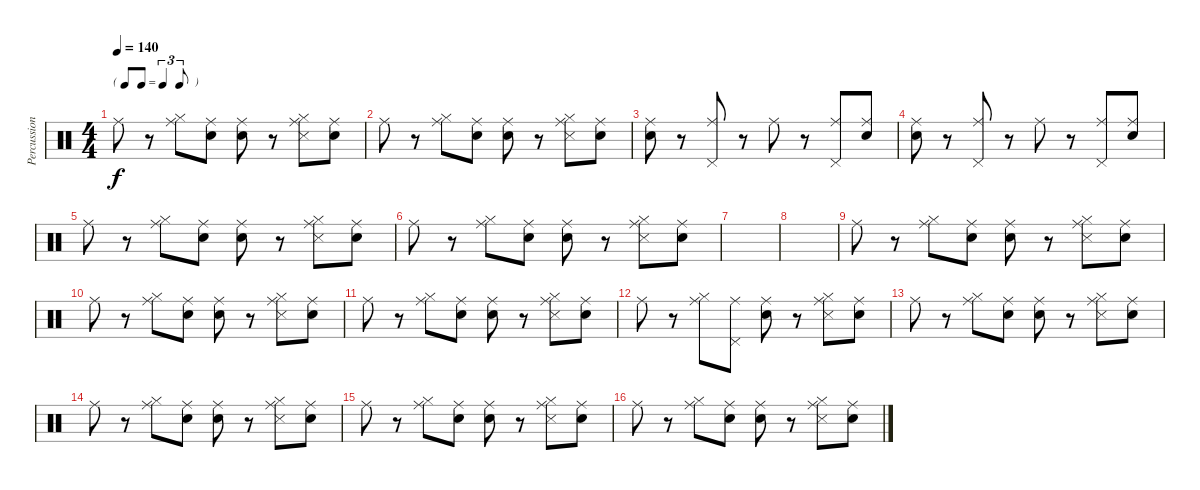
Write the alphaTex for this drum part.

\track ("Percussions" "Percussion") {instrument percussion}
\staff {score}
\articulation defaults
\ts (4 4)
\tf triplet8th
\tempo 140
\clef neutral
\ks c "Ride (middle)".8{dy f}
r.8 ("Hi-Hat (closed)" "Ride (middle)").8 ("Snare (hit)" "Ride (middle)").8 ("Snare (hit)" "Ride (middle)").8 r.8 ("Hi-Hat (closed)" "Snare (side stick) 3" "Ride (middle)").8 ("Snare (hit)" "Ride (middle)").8 |
"Ride (middle)".8 r.8 ("Hi-Hat (closed)" "Ride (middle)").8 ("Snare (hit)" "Ride (middle)").8 ("Snare (hit)" "Ride (middle)").8 r.8 ("Hi-Hat (closed)" "Snare (side stick) 3" "Ride (middle)").8 ("Snare (hit)" "Ride (middle)").8 |
("Snare (hit)" "Ride (middle)").8 r.8 ("Pedal Hi-Hat (hit)" "Ride (middle)").8 r.8 "Ride (middle)".8 r.8 ("Pedal Hi-Hat (hit)" "Ride (middle)").8 ("Snare (hit)" "Ride (middle)").8 |
("Snare (hit)" "Ride (middle)").8 r.8 ("Pedal Hi-Hat (hit)" "Ride (middle)").8 r.8 "Ride (middle)".8 r.8 ("Pedal Hi-Hat (hit)" "Ride (middle)").8 ("Snare (hit)" "Ride (middle)").8 |
"Ride (middle)".8 r.8 ("Hi-Hat (closed)" "Ride (middle)").8 ("Snare (hit)" "Ride (middle)").8 ("Snare (hit)" "Ride (middle)").8 r.8 ("Hi-Hat (closed)" "Snare (side stick) 3" "Ride (middle)").8 ("Snare (hit)" "Ride (middle)").8 |
"Ride (middle)".8 r.8 ("Hi-Hat (closed)" "Ride (middle)").8 ("Snare (hit)" "Ride (middle)").8 ("Snare (hit)" "Ride (middle)").8 r.8 ("Hi-Hat (closed)" "Snare (side stick) 3" "Ride (middle)").8 ("Snare (hit)" "Ride (middle)").8 |
|
|
"Ride (middle)".8 r.8 ("Hi-Hat (closed)" "Ride (middle)").8 ("Snare (hit)" "Ride (middle)").8 ("Snare (hit)" "Ride (middle)").8 r.8 ("Hi-Hat (closed)" "Snare (side stick) 3" "Ride (middle)").8 ("Snare (hit)" "Ride (middle)").8 |
"Ride (middle)".8 r.8 ("Hi-Hat (closed)" "Ride (middle)").8 ("Snare (hit)" "Ride (middle)").8 ("Snare (hit)" "Ride (middle)").8 r.8 ("Hi-Hat (closed)" "Snare (side stick) 3" "Ride (middle)").8 ("Snare (hit)" "Ride (middle)").8 |
"Ride (middle)".8 r.8 ("Hi-Hat (closed)" "Ride (middle)").8 ("Snare (hit)" "Ride (middle)").8 ("Snare (hit)" "Ride (middle)").8 r.8 ("Hi-Hat (closed)" "Snare (side stick) 3" "Ride (middle)").8 ("Snare (hit)" "Ride (middle)").8 |
"Ride (middle)".8 r.8 ("Hi-Hat (closed)" "Ride (middle)").8 ("Pedal Hi-Hat (hit)" "Ride (middle)").8 ("Snare (hit)" "Ride (middle)").8 r.8 ("Hi-Hat (closed)" "Snare (side stick) 3" "Ride (middle)").8 ("Snare (hit)" "Ride (middle)").8 |
"Ride (middle)".8 r.8 ("Hi-Hat (closed)" "Ride (middle)").8 ("Snare (hit)" "Ride (middle)").8 ("Snare (hit)" "Ride (middle)").8 r.8 ("Hi-Hat (closed)" "Snare (side stick) 3" "Ride (middle)").8 ("Snare (hit)" "Ride (middle)").8 |
"Ride (middle)".8 r.8 ("Hi-Hat (closed)" "Ride (middle)").8 ("Snare (hit)" "Ride (middle)").8 ("Snare (hit)" "Ride (middle)").8 r.8 ("Hi-Hat (closed)" "Snare (side stick) 3" "Ride (middle)").8 ("Snare (hit)" "Ride (middle)").8 |
"Ride (middle)".8 r.8 ("Hi-Hat (closed)" "Ride (middle)").8 ("Snare (hit)" "Ride (middle)").8 ("Snare (hit)" "Ride (middle)").8 r.8 ("Hi-Hat (closed)" "Snare (side stick) 3" "Ride (middle)").8 ("Snare (hit)" "Ride (middle)").8 |
"Ride (middle)".8 r.8 ("Hi-Hat (closed)" "Ride (middle)").8 ("Snare (hit)" "Ride (middle)").8 ("Snare (hit)" "Ride (middle)").8 r.8 ("Hi-Hat (closed)" "Snare (side stick) 3" "Ride (middle)").8 ("Snare (hit)" "Ride (middle)").8
